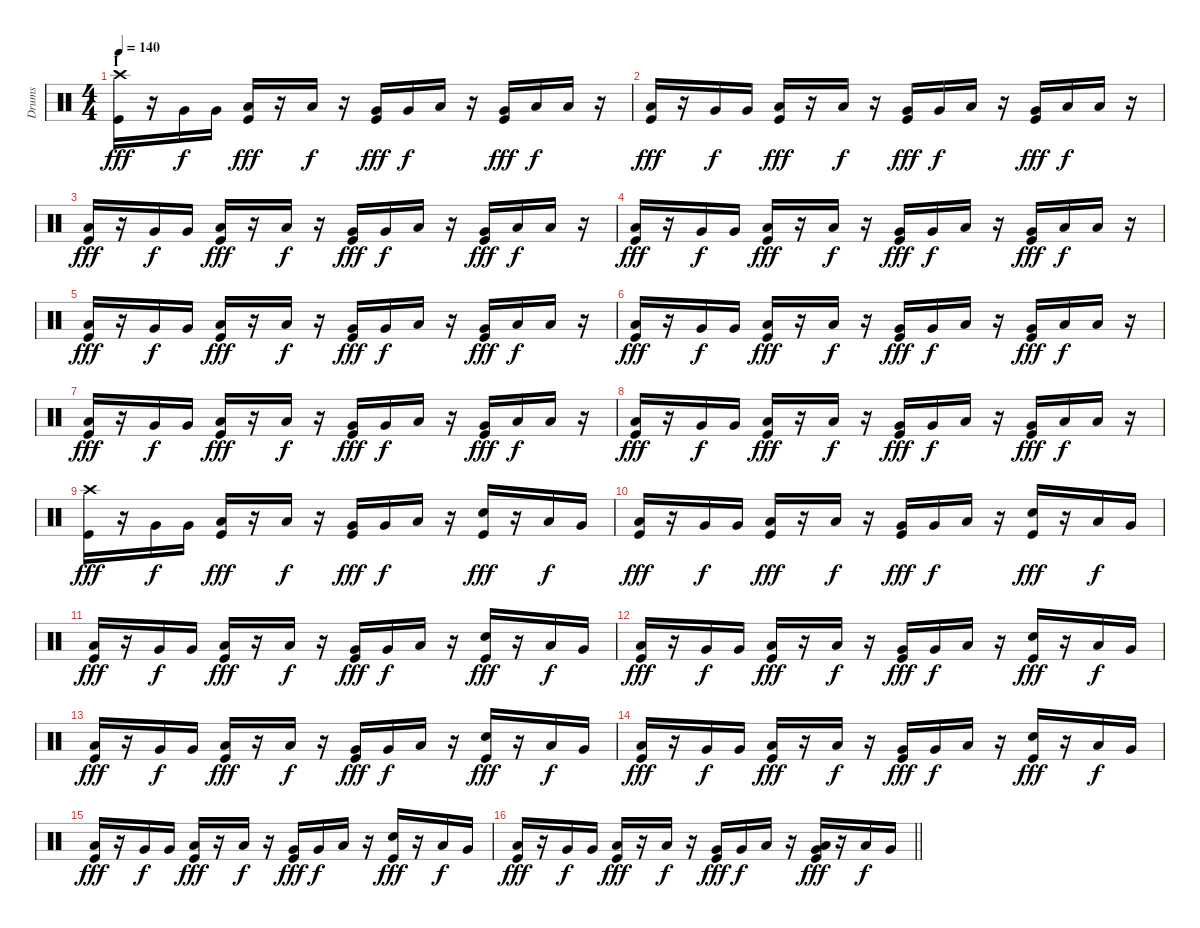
\track ("Drums" "Drums") {instrument percussion}
\staff {score}
\articulation defaults
\ts (4 4)
\section ("" "I")
\tempo 140
\clef neutral
\ks c
("Crash high (hit)" "Kick (hit)").16{dy fff} r.16 "Very Low Tom (hit)".16{dy f} "Very Low Tom (hit)".16 ("Low Floor Tom (hit)" "Kick (hit)").16{dy fff} r.16 "Low Tom (hit)".16{dy f} r.16 ("Very Low Tom (hit)" "Kick (hit)").16{dy fff} "Very Low Tom (hit)".16{dy f} "Low Floor Tom (hit)".16 r.16 ("Very Low Tom (hit)" "Kick (hit)").16{dy fff} "Low Tom (hit)".16{dy f} "Low Floor Tom (hit)".16 r.16 |
("Low Tom (hit)" "Kick (hit)").16{dy fff} r.16 "Very Low Tom (hit)".16{dy f} "Very Low Tom (hit)".16 ("Low Floor Tom (hit)" "Kick (hit)").16{dy fff} r.16 "Low Tom (hit)".16{dy f} r.16 ("Very Low Tom (hit)" "Kick (hit)").16{dy fff} "Very Low Tom (hit)".16{dy f} "Low Floor Tom (hit)".16 r.16 ("Very Low Tom (hit)" "Kick (hit)").16{dy fff} "Low Tom (hit)".16{dy f} "Low Floor Tom (hit)".16 r.16 |
("Low Tom (hit)" "Kick (hit)").16{dy fff} r.16 "Very Low Tom (hit)".16{dy f} "Very Low Tom (hit)".16 ("Low Floor Tom (hit)" "Kick (hit)").16{dy fff} r.16 "Low Tom (hit)".16{dy f} r.16 ("Very Low Tom (hit)" "Kick (hit)").16{dy fff} "Very Low Tom (hit)".16{dy f} "Low Floor Tom (hit)".16 r.16 ("Very Low Tom (hit)" "Kick (hit)").16{dy fff} "Low Tom (hit)".16{dy f} "Low Floor Tom (hit)".16 r.16 |
("Low Tom (hit)" "Kick (hit)").16{dy fff} r.16 "Very Low Tom (hit)".16{dy f} "Very Low Tom (hit)".16 ("Low Floor Tom (hit)" "Kick (hit)").16{dy fff} r.16 "Low Tom (hit)".16{dy f} r.16 ("Very Low Tom (hit)" "Kick (hit)").16{dy fff} "Very Low Tom (hit)".16{dy f} "Low Floor Tom (hit)".16 r.16 ("Very Low Tom (hit)" "Kick (hit)").16{dy fff} "Low Tom (hit)".16{dy f} "Low Floor Tom (hit)".16 r.16 |
("Low Tom (hit)" "Kick (hit)").16{dy fff} r.16 "Very Low Tom (hit)".16{dy f} "Very Low Tom (hit)".16 ("Low Floor Tom (hit)" "Kick (hit)").16{dy fff} r.16 "Low Tom (hit)".16{dy f} r.16 ("Very Low Tom (hit)" "Kick (hit)").16{dy fff} "Very Low Tom (hit)".16{dy f} "Low Floor Tom (hit)".16 r.16 ("Very Low Tom (hit)" "Kick (hit)").16{dy fff} "Low Tom (hit)".16{dy f} "Low Floor Tom (hit)".16 r.16 |
("Low Tom (hit)" "Kick (hit)").16{dy fff} r.16 "Very Low Tom (hit)".16{dy f} "Very Low Tom (hit)".16 ("Low Floor Tom (hit)" "Kick (hit)").16{dy fff} r.16 "Low Tom (hit)".16{dy f} r.16 ("Very Low Tom (hit)" "Kick (hit)").16{dy fff} "Very Low Tom (hit)".16{dy f} "Low Floor Tom (hit)".16 r.16 ("Very Low Tom (hit)" "Kick (hit)").16{dy fff} "Low Tom (hit)".16{dy f} "Low Floor Tom (hit)".16 r.16 |
("Low Tom (hit)" "Kick (hit)").16{dy fff} r.16 "Very Low Tom (hit)".16{dy f} "Very Low Tom (hit)".16 ("Low Floor Tom (hit)" "Kick (hit)").16{dy fff} r.16 "Low Tom (hit)".16{dy f} r.16 ("Very Low Tom (hit)" "Kick (hit)").16{dy fff} "Very Low Tom (hit)".16{dy f} "Low Floor Tom (hit)".16 r.16 ("Very Low Tom (hit)" "Kick (hit)").16{dy fff} "Low Tom (hit)".16{dy f} "Low Floor Tom (hit)".16 r.16 |
("Low Tom (hit)" "Kick (hit)").16{dy fff} r.16 "Very Low Tom (hit)".16{dy f} "Very Low Tom (hit)".16 ("Low Floor Tom (hit)" "Kick (hit)").16{dy fff} r.16 "Low Tom (hit)".16{dy f} r.16 ("Very Low Tom (hit)" "Kick (hit)").16{dy fff} "Very Low Tom (hit)".16{dy f} "Low Floor Tom (hit)".16 r.16 ("Very Low Tom (hit)" "Kick (hit)").16{dy fff} "Low Tom (hit)".16{dy f} "Low Floor Tom (hit)".16 r.16 |
("Crash high (hit)" "Kick (hit)").16{dy fff} r.16 "Very Low Tom (hit)".16{dy f} "Very Low Tom (hit)".16 ("Low Floor Tom (hit)" "Kick (hit)").16{dy fff} r.16 "Low Tom (hit)".16{dy f} r.16 ("Very Low Tom (hit)" "Kick (hit)").16{dy fff} "Very Low Tom (hit)".16{dy f} "Low Floor Tom (hit)".16 r.16 ("Electric Snare (hit)" "Kick (hit)").16{dy fff} r.16 "Low Floor Tom (hit)".16{dy f} "Very Low Tom (hit)".16 |
("Low Tom (hit)" "Kick (hit)").16{dy fff} r.16 "Very Low Tom (hit)".16{dy f} "Very Low Tom (hit)".16 ("Low Floor Tom (hit)" "Kick (hit)").16{dy fff} r.16 "Low Tom (hit)".16{dy f} r.16 ("Very Low Tom (hit)" "Kick (hit)").16{dy fff} "Very Low Tom (hit)".16{dy f} "Low Floor Tom (hit)".16 r.16 ("Electric Snare (hit)" "Kick (hit)").16{dy fff} r.16 "Low Floor Tom (hit)".16{dy f} "Very Low Tom (hit)".16 |
("Low Tom (hit)" "Kick (hit)").16{dy fff} r.16 "Very Low Tom (hit)".16{dy f} "Very Low Tom (hit)".16 ("Low Floor Tom (hit)" "Kick (hit)").16{dy fff} r.16 "Low Tom (hit)".16{dy f} r.16 ("Very Low Tom (hit)" "Kick (hit)").16{dy fff} "Very Low Tom (hit)".16{dy f} "Low Floor Tom (hit)".16 r.16 ("Electric Snare (hit)" "Kick (hit)").16{dy fff} r.16 "Low Floor Tom (hit)".16{dy f} "Very Low Tom (hit)".16 |
("Low Tom (hit)" "Kick (hit)").16{dy fff} r.16 "Very Low Tom (hit)".16{dy f} "Very Low Tom (hit)".16 ("Low Floor Tom (hit)" "Kick (hit)").16{dy fff} r.16 "Low Tom (hit)".16{dy f} r.16 ("Very Low Tom (hit)" "Kick (hit)").16{dy fff} "Very Low Tom (hit)".16{dy f} "Low Floor Tom (hit)".16 r.16 ("Electric Snare (hit)" "Kick (hit)").16{dy fff} r.16 "Low Floor Tom (hit)".16{dy f} "Very Low Tom (hit)".16 |
("Low Tom (hit)" "Kick (hit)").16{dy fff} r.16 "Very Low Tom (hit)".16{dy f} "Very Low Tom (hit)".16 ("Low Floor Tom (hit)" "Kick (hit)").16{dy fff} r.16 "Low Tom (hit)".16{dy f} r.16 ("Very Low Tom (hit)" "Kick (hit)").16{dy fff} "Very Low Tom (hit)".16{dy f} "Low Floor Tom (hit)".16 r.16 ("Electric Snare (hit)" "Kick (hit)").16{dy fff} r.16 "Low Floor Tom (hit)".16{dy f} "Very Low Tom (hit)".16 |
("Low Tom (hit)" "Kick (hit)").16{dy fff} r.16 "Very Low Tom (hit)".16{dy f} "Very Low Tom (hit)".16 ("Low Floor Tom (hit)" "Kick (hit)").16{dy fff} r.16 "Low Tom (hit)".16{dy f} r.16 ("Very Low Tom (hit)" "Kick (hit)").16{dy fff} "Very Low Tom (hit)".16{dy f} "Low Floor Tom (hit)".16 r.16 ("Electric Snare (hit)" "Kick (hit)").16{dy fff} r.16 "Low Floor Tom (hit)".16{dy f} "Very Low Tom (hit)".16 |
("Low Tom (hit)" "Kick (hit)").16{dy fff} r.16 "Very Low Tom (hit)".16{dy f} "Very Low Tom (hit)".16 ("Low Floor Tom (hit)" "Kick (hit)").16{dy fff} r.16 "Low Tom (hit)".16{dy f} r.16 ("Very Low Tom (hit)" "Kick (hit)").16{dy fff} "Very Low Tom (hit)".16{dy f} "Low Floor Tom (hit)".16 r.16 ("Electric Snare (hit)" "Kick (hit)").16{dy fff} r.16 "Low Floor Tom (hit)".16{dy f} "Very Low Tom (hit)".16 |
\barLineRight lightlight
("Low Tom (hit)" "Kick (hit)").16{dy fff} r.16 "Very Low Tom (hit)".16{dy f} "Very Low Tom (hit)".16 ("Low Floor Tom (hit)" "Kick (hit)").16{dy fff} r.16 "Low Tom (hit)".16{dy f} r.16 ("Very Low Tom (hit)" "Kick (hit)").16{dy fff} "Very Low Tom (hit)".16{dy f} "Low Floor Tom (hit)".16 r.16 ("Very Low Tom (hit)" "Low Floor Tom (hit)" "Kick (hit)").16{dy fff} r.16 "Low Floor Tom (hit)".16{dy f} "Very Low Tom (hit)".16
